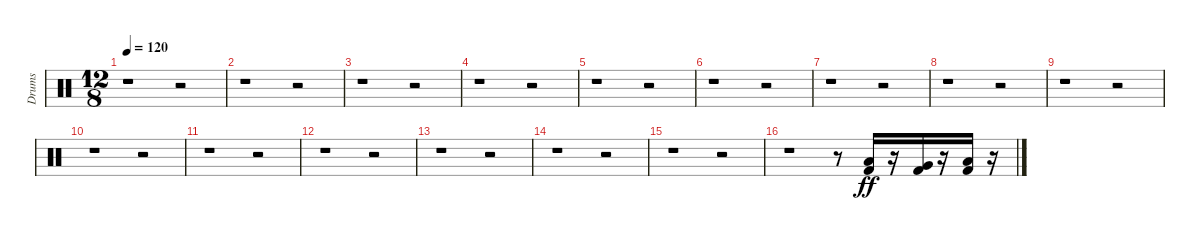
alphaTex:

\track ("Drums" "Drums") {instrument percussion}
\staff {score}
\articulation defaults
\ts (12 8)
\tempo 120
\clef neutral
\ks c
r.1{dy ff} r.2 |
r.1 r.2 |
r.1 r.2 |
r.1 r.2 |
r.1 r.2 |
r.1 r.2 |
r.1 r.2 |
r.1 r.2 |
r.1 r.2 |
r.1 r.2 |
r.1 r.2 |
r.1 r.2 |
r.1 r.2 |
r.1 r.2 |
r.1 r.2 |
r.1 r.8 ("Low Tom (hit)" "Kick (hit) 2").16 r.16 ("Very Low Tom (hit)" "Kick (hit) 2").16 r.16 ("Low Floor Tom (hit)" "Kick (hit) 2").16 r.16
